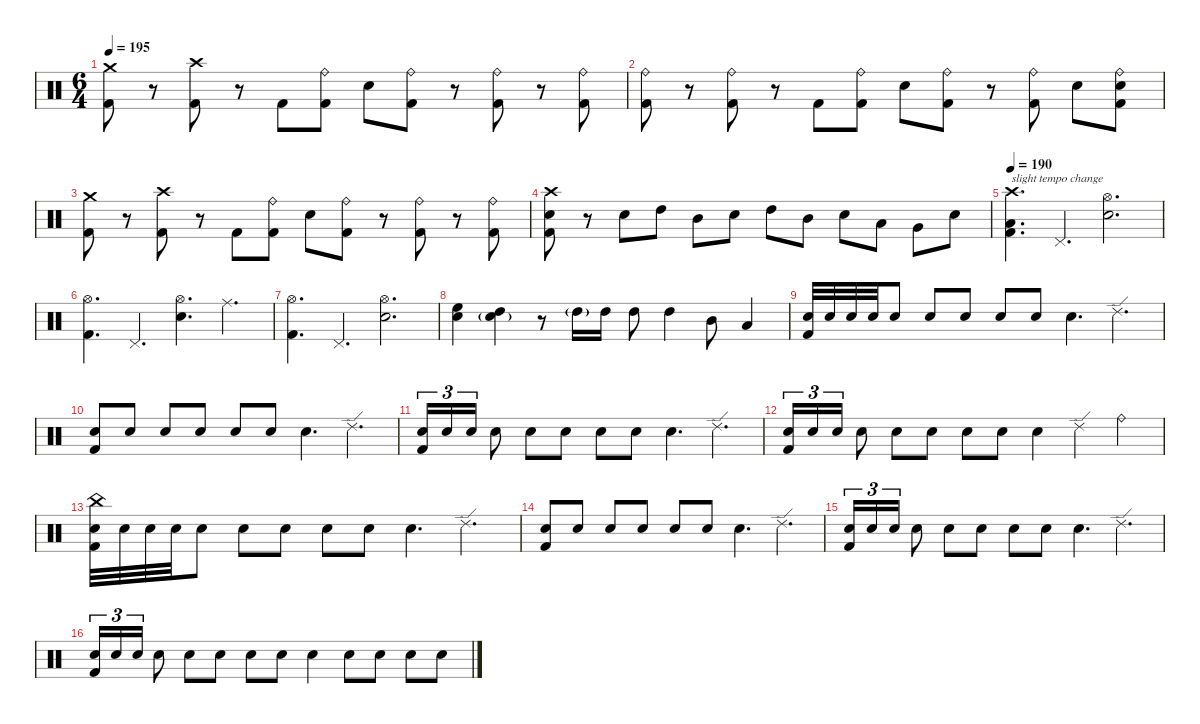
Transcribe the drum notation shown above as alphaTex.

\defaultSystemsLayout 4
\hideDynamics
\bracketExtendMode nobrackets
\singleTrackTrackNamePolicy hidden
\multiTrackTrackNamePolicy hidden
\firstSystemTrackNameMode fullname
\firstSystemTrackNameOrientation horizontal
\otherSystemsTrackNameOrientation horizontal
\track ("Drums" "drm.") {instrument percussion}
\staff {score}
\articulation defaults
\ts (6 4)
\tempo 195
\clef neutral
\ks c
("Crash medium (hit)" "Kick (hit) 2").8{dy f beam Down} r.8{beam Down} ("Crash high (hit)" "Kick (hit) 2").8{beam Down} r.8{beam Down} "Kick (hit) 2".8{beam Down} ("Ride (bell)" "Kick (hit) 2").8{beam Down} "Snare (hit) 2".8{beam Down} ("Ride (bell)" "Kick (hit) 2").8{beam Down} r.8{beam Down} ("Ride (bell)" "Kick (hit) 2").8{beam Down} r.8{beam Down} ("Ride (bell)" "Kick (hit) 2").8{beam Down} |
("Ride (bell)" "Kick (hit) 2").8{beam Down} r.8{beam Down} ("Ride (bell)" "Kick (hit) 2").8{beam Down} r.8{beam Down} "Kick (hit) 2".8{beam Down} ("Ride (bell)" "Kick (hit) 2").8{beam Down} "Snare (hit) 2".8{beam Down} ("Ride (bell)" "Kick (hit) 2").8{beam Down} r.8{beam Down} ("Ride (bell)" "Kick (hit) 2").8{beam Down} "Snare (hit) 2".8{beam Down} ("Ride (bell)" "Snare (hit) 2" "Kick (hit) 2").8{beam Down} |
("Crash medium (hit)" "Kick (hit) 2").8{beam Down} r.8{beam Down} ("Crash high (hit)" "Kick (hit) 2").8{beam Down} r.8{beam Down} "Kick (hit) 2".8{beam Down} ("Ride (bell)" "Kick (hit) 2").8{beam Down} "Snare (hit) 2".8{beam Down} ("Ride (bell)" "Kick (hit) 2").8{beam Down} r.8{beam Down} ("Ride (bell)" "Kick (hit) 2").8{beam Down} r.8{beam Down} ("Ride (bell)" "Kick (hit) 2").8{beam Down} |
("Crash high (hit)" "Snare (hit) 2" "Kick (hit) 2").8{beam Down} r.8{beam Down} "Snare (hit) 2".8{beam Down} "High Tom (hit)".8{beam Down} "Mid Tom (hit)".8{beam Down} "Snare (hit) 2".8{beam Down} "High Tom (hit)".8{beam Down} "Mid Tom (hit)".8{beam Down} "Snare (hit) 2".8{beam Down} "Low Tom (hit)".8{beam Down} "Very Low Tom (hit)".8{beam Down} "Snare (hit) 2".8{beam Down} |
\tempo 190
("Crash high (hit)" "Low Tom (hit)" "Kick (hit) 2").4{d txt "slight tempo change" beam Down} "Pedal Hi-Hat (hit)".4{d beam Up} ("Hi-Hat (open)" "Snare (hit) 2").2{d beam Down} |
("Hi-Hat (open)" "Kick (hit) 2").4{d beam Down} "Pedal Hi-Hat (hit)".4{d beam Up} ("Hi-Hat (open)" "Snare (hit) 2").4{d beam Down} "Ride (middle)".4{d beam Down} |
("Hi-Hat (open)" "Kick (hit) 2").4{d beam Down} "Pedal Hi-Hat (hit)".4{d beam Up} ("Hi-Hat (open)" "Snare (hit) 2").2{d beam Down} |
("High Floor Tom (hit)" "Snare (hit) 2").4{beam Down} ("High Tom (hit)" "Snare (hit) 2"{g}).4{beam Down} r.8{beam Down} "High Tom (hit)"{g}.16{dy mf beam Down} "High Tom (hit)".16{dy f beam Down} "High Tom (hit)".8{beam Down} "High Tom (hit)".4{beam Down} "Mid Tom (hit)".8{beam Down} "Low Tom (hit)".4{beam Up} |
("Snare (hit) 2" "Kick (hit) 2").32{dy pp beam Up} "Snare (hit) 2".32{beam Up} "Snare (hit) 2".32{dy p beam Up} "Snare (hit) 2".32{beam Up} "Snare (hit) 2".8{beam Up} "Snare (hit) 2".8{beam Up} "Snare (hit) 2".8{dy pp beam Up} "Snare (hit) 2".8{dy p beam Up} "Snare (hit) 2".8{beam Up} "Snare (hit) 2".4{d dy mf beam Down} "Ride (edge) 2".4{d dy f beam Down} |
("Snare (hit) 2" "Kick (hit) 2").8{dy p beam Up} "Snare (hit) 2".8{beam Up} "Snare (hit) 2".8{beam Up} "Snare (hit) 2".8{dy pp beam Up} "Snare (hit) 2".8{dy p beam Up} "Snare (hit) 2".8{beam Up} "Snare (hit) 2".4{d dy mf beam Down} "Ride (edge) 2".4{d dy f beam Down} |
("Snare (hit) 2" "Kick (hit) 2").16{tu (3 2) dy pp beam Up} "Snare (hit) 2".16{tu (3 2) beam Up} "Snare (hit) 2".16{tu (3 2) dy p beam Up} "Snare (hit) 2".8{beam Down} "Snare (hit) 2".8{beam Down} "Snare (hit) 2".8{dy pp beam Down} "Snare (hit) 2".8{dy p beam Down} "Snare (hit) 2".8{beam Down} "Snare (hit) 2".4{d dy mf beam Down} "Ride (edge) 2".4{d dy f beam Down} |
("Snare (hit) 2" "Kick (hit) 2").16{tu (3 2) dy pp beam Up} "Snare (hit) 2".16{tu (3 2) beam Up} "Snare (hit) 2".16{tu (3 2) dy p beam Up} "Snare (hit) 2".8{beam Down} "Snare (hit) 2".8{beam Down} "Snare (hit) 2".8{dy pp beam Down} "Snare (hit) 2".8{dy p beam Down} "Snare (hit) 2".8{beam Down} "Snare (hit) 2".4{dy mf beam Down} "Ride (edge) 2".4{dy f beam Down} "Ride (bell)".4{dy fff beam Down} |
("China (hit)" "Snare (hit) 2" "Kick (hit) 2").32{beam Down} "Snare (hit) 2".32{dy pp beam Down} "Snare (hit) 2".32{dy p beam Down} "Snare (hit) 2".32{beam Down} "Snare (hit) 2".8{beam Down} "Snare (hit) 2".8{beam Down} "Snare (hit) 2".8{dy pp beam Down} "Snare (hit) 2".8{dy p beam Down} "Snare (hit) 2".8{beam Down} "Snare (hit) 2".4{d dy mf beam Down} "Ride (edge) 2".4{d dy f beam Down} |
("Snare (hit) 2" "Kick (hit) 2").8{dy p beam Up} "Snare (hit) 2".8{beam Up} "Snare (hit) 2".8{beam Up} "Snare (hit) 2".8{dy pp beam Up} "Snare (hit) 2".8{dy p beam Up} "Snare (hit) 2".8{beam Up} "Snare (hit) 2".4{d dy mf beam Down} "Ride (edge) 2".4{d dy f beam Down} |
("Snare (hit) 2" "Kick (hit) 2").16{tu (3 2) dy pp beam Up} "Snare (hit) 2".16{tu (3 2) beam Up} "Snare (hit) 2".16{tu (3 2) dy p beam Up} "Snare (hit) 2".8{beam Down} "Snare (hit) 2".8{beam Down} "Snare (hit) 2".8{dy pp beam Down} "Snare (hit) 2".8{dy p beam Down} "Snare (hit) 2".8{beam Down} "Snare (hit) 2".4{d dy mf beam Down} "Ride (edge) 2".4{d dy f beam Down} |
("Snare (hit) 2" "Kick (hit) 2").16{tu (3 2) dy pp beam Up} "Snare (hit) 2".16{tu (3 2) beam Up} "Snare (hit) 2".16{tu (3 2) dy p beam Up} "Snare (hit) 2".8{beam Down} "Snare (hit) 2".8{beam Down} "Snare (hit) 2".8{dy pp beam Down} "Snare (hit) 2".8{dy p beam Down} "Snare (hit) 2".8{beam Down} "Snare (hit) 2".4{dy mf beam Down} "Snare (hit) 2".8{dy p beam Down} "Snare (hit) 2".8{dy mp beam Down} "Snare (hit) 2".8{dy mf beam Down} "Snare (hit) 2".8{dy f beam Down}
